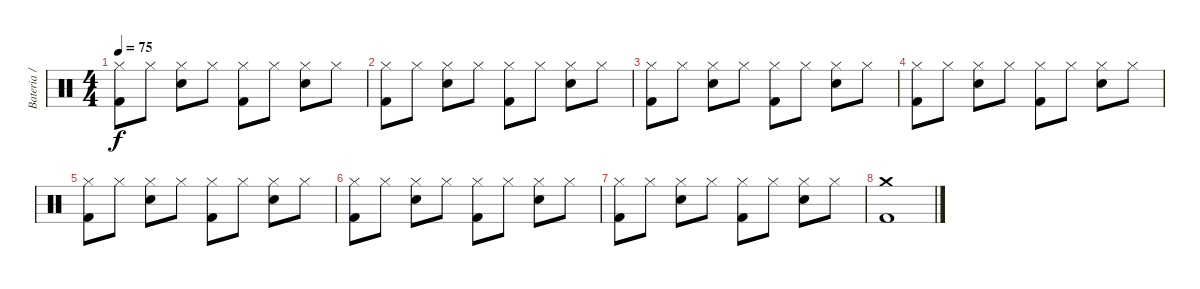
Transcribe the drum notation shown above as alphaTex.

\track ("Bateria / Ringo" "Bateria / ") {instrument percussion}
\staff {score}
\articulation defaults
\ts (4 4)
\tempo 75
\clef neutral
\ks c
("Hi-Hat (closed)" "Kick (hit) 2").8{dy f} "Hi-Hat (closed)".8 ("Snare (hit) 2" "Hi-Hat (closed)").8 "Hi-Hat (closed)".8 ("Hi-Hat (closed)" "Kick (hit) 2").8 "Hi-Hat (closed)".8 ("Snare (hit) 2" "Hi-Hat (closed)").8 "Hi-Hat (closed)".8 |
("Hi-Hat (closed)" "Kick (hit) 2").8 "Hi-Hat (closed)".8 ("Snare (hit) 2" "Hi-Hat (closed)").8 "Hi-Hat (closed)".8 ("Hi-Hat (closed)" "Kick (hit) 2").8 "Hi-Hat (closed)".8 ("Snare (hit) 2" "Hi-Hat (closed)").8 "Hi-Hat (closed)".8 |
("Hi-Hat (closed)" "Kick (hit) 2").8 "Hi-Hat (closed)".8 ("Snare (hit) 2" "Hi-Hat (closed)").8 "Hi-Hat (closed)".8 ("Hi-Hat (closed)" "Kick (hit) 2").8 "Hi-Hat (closed)".8 ("Snare (hit) 2" "Hi-Hat (closed)").8 "Hi-Hat (closed)".8 |
("Hi-Hat (closed)" "Kick (hit) 2").8 "Hi-Hat (closed)".8 ("Snare (hit) 2" "Hi-Hat (closed)").8 "Hi-Hat (closed)".8 ("Hi-Hat (closed)" "Kick (hit) 2").8 "Hi-Hat (closed)".8 ("Snare (hit) 2" "Hi-Hat (closed)").8 "Hi-Hat (closed)".8 |
("Hi-Hat (closed)" "Kick (hit) 2").8 "Hi-Hat (closed)".8 ("Snare (hit) 2" "Hi-Hat (closed)").8 "Hi-Hat (closed)".8 ("Hi-Hat (closed)" "Kick (hit) 2").8 "Hi-Hat (closed)".8 ("Snare (hit) 2" "Hi-Hat (closed)").8 "Hi-Hat (closed)".8 |
("Hi-Hat (closed)" "Kick (hit) 2").8 "Hi-Hat (closed)".8 ("Snare (hit) 2" "Hi-Hat (closed)").8 "Hi-Hat (closed)".8 ("Hi-Hat (closed)" "Kick (hit) 2").8 "Hi-Hat (closed)".8 ("Snare (hit) 2" "Hi-Hat (closed)").8 "Hi-Hat (closed)".8 |
("Hi-Hat (closed)" "Kick (hit) 2").8 "Hi-Hat (closed)".8 ("Snare (hit) 2" "Hi-Hat (closed)").8 "Hi-Hat (closed)".8 ("Hi-Hat (closed)" "Kick (hit) 2").8 "Hi-Hat (closed)".8 ("Snare (hit) 2" "Hi-Hat (closed)").8 "Hi-Hat (closed)".8 |
("Crash medium (hit)" "Kick (hit) 2").1
